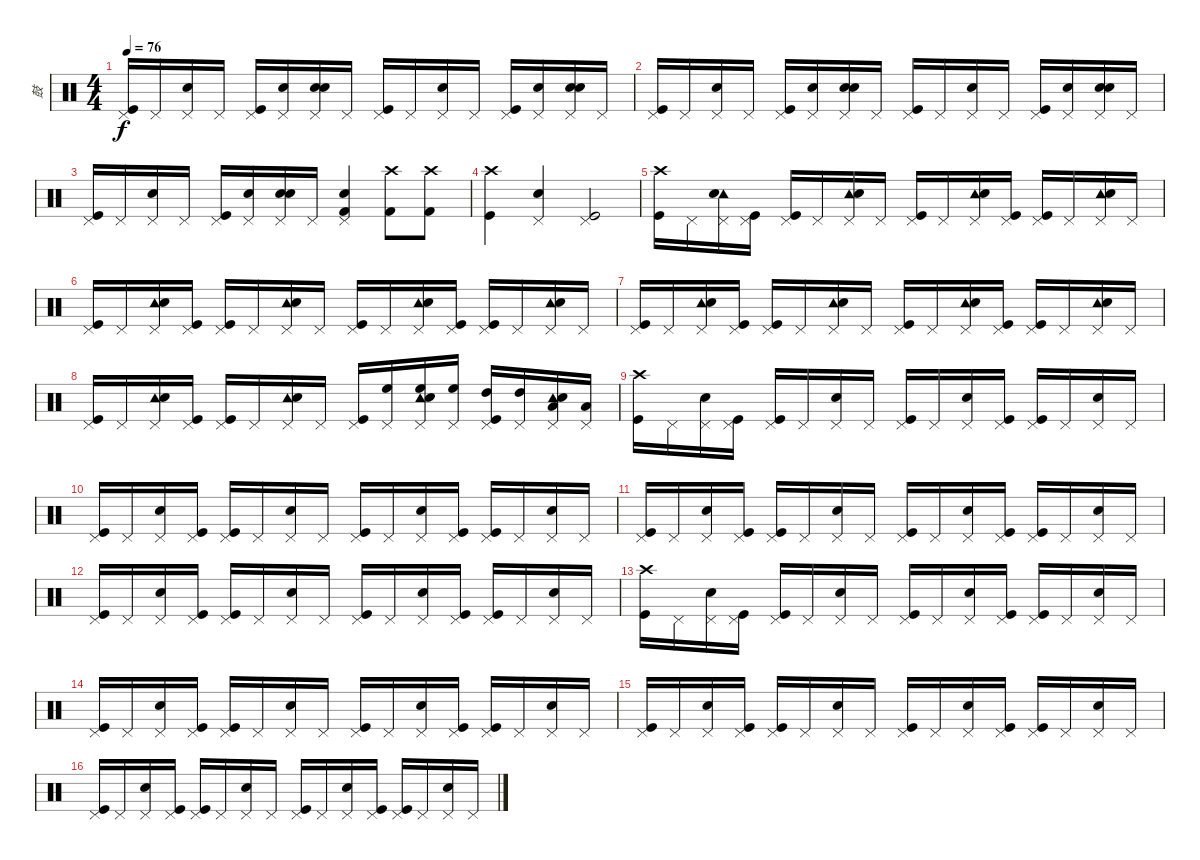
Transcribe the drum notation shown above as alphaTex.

\track ("鼓" "鼓") {instrument percussion}
\staff {score}
\articulation defaults
\ts (4 4)
\tempo 76
\clef neutral
\ks c
("Pedal Hi-Hat (hit)" "Kick (hit)").16{dy f} "Pedal Hi-Hat (hit)".16 ("Pedal Hi-Hat (hit)" "Snare (hit) 2").16 "Pedal Hi-Hat (hit)".16 ("Pedal Hi-Hat (hit)" "Kick (hit)").16 ("Pedal Hi-Hat (hit)" "Hand Clap (hit)").16 ("Pedal Hi-Hat (hit)" "Hand Clap (hit)" "Snare (hit) 2").16 "Pedal Hi-Hat (hit)".16 ("Pedal Hi-Hat (hit)" "Kick (hit)").16 "Pedal Hi-Hat (hit)".16 ("Pedal Hi-Hat (hit)" "Snare (hit) 2").16 "Pedal Hi-Hat (hit)".16 ("Pedal Hi-Hat (hit)" "Kick (hit)").16 ("Pedal Hi-Hat (hit)" "Hand Clap (hit)").16 ("Pedal Hi-Hat (hit)" "Hand Clap (hit)" "Snare (hit) 2").16 "Pedal Hi-Hat (hit)".16 |
("Pedal Hi-Hat (hit)" "Kick (hit)").16 "Pedal Hi-Hat (hit)".16 ("Pedal Hi-Hat (hit)" "Snare (hit) 2").16 "Pedal Hi-Hat (hit)".16 ("Pedal Hi-Hat (hit)" "Kick (hit)").16 ("Pedal Hi-Hat (hit)" "Hand Clap (hit)").16 ("Pedal Hi-Hat (hit)" "Hand Clap (hit)" "Snare (hit) 2").16 "Pedal Hi-Hat (hit)".16 ("Pedal Hi-Hat (hit)" "Kick (hit)").16 "Pedal Hi-Hat (hit)".16 ("Pedal Hi-Hat (hit)" "Snare (hit) 2").16 "Pedal Hi-Hat (hit)".16 ("Pedal Hi-Hat (hit)" "Kick (hit)").16 ("Pedal Hi-Hat (hit)" "Hand Clap (hit)").16 ("Pedal Hi-Hat (hit)" "Hand Clap (hit)" "Snare (hit) 2").16 "Pedal Hi-Hat (hit)".16 |
("Pedal Hi-Hat (hit)" "Kick (hit)").16 "Pedal Hi-Hat (hit)".16 ("Pedal Hi-Hat (hit)" "Snare (hit) 2").16 "Pedal Hi-Hat (hit)".16 ("Pedal Hi-Hat (hit)" "Kick (hit)").16 ("Pedal Hi-Hat (hit)" "Hand Clap (hit)").16 ("Pedal Hi-Hat (hit)" "Hand Clap (hit)" "Snare (hit) 2").16 "Pedal Hi-Hat (hit)".16 ("Pedal Hi-Hat (hit)" "Kick (hit) 2" "Snare (hit) 2").4 ("Crash high (hit)" "Kick (hit) 2").8 ("Crash high (hit)" "Kick (hit) 2").8 |
("Crash high (hit)" "Kick (hit)").4 ("Pedal Hi-Hat (hit)" "Snare (hit) 2").4 ("Pedal Hi-Hat (hit)" "Kick (hit)").2 |
("Crash high (hit)" "Kick (hit)").16 "Pedal Hi-Hat (hit)".16 ("Pedal Hi-Hat (hit)" "Tambourine (hit)" "Snare (hit) 2").16 ("Pedal Hi-Hat (hit)" "Kick (hit)").16 ("Pedal Hi-Hat (hit)" "Kick (hit)").16 "Pedal Hi-Hat (hit)".16 ("Pedal Hi-Hat (hit)" "Tambourine (hit)" "Snare (hit) 2").16 "Pedal Hi-Hat (hit)".16 ("Pedal Hi-Hat (hit)" "Kick (hit)").16 "Pedal Hi-Hat (hit)".16 ("Pedal Hi-Hat (hit)" "Tambourine (hit)" "Snare (hit) 2").16 ("Pedal Hi-Hat (hit)" "Kick (hit)").16 ("Pedal Hi-Hat (hit)" "Kick (hit)").16 "Pedal Hi-Hat (hit)".16 ("Pedal Hi-Hat (hit)" "Tambourine (hit)" "Snare (hit) 2").16 "Pedal Hi-Hat (hit)".16 |
("Pedal Hi-Hat (hit)" "Kick (hit)").16 "Pedal Hi-Hat (hit)".16 ("Pedal Hi-Hat (hit)" "Tambourine (hit)" "Snare (hit) 2").16 ("Pedal Hi-Hat (hit)" "Kick (hit)").16 ("Pedal Hi-Hat (hit)" "Kick (hit)").16 "Pedal Hi-Hat (hit)".16 ("Pedal Hi-Hat (hit)" "Tambourine (hit)" "Snare (hit) 2").16 "Pedal Hi-Hat (hit)".16 ("Pedal Hi-Hat (hit)" "Kick (hit)").16 "Pedal Hi-Hat (hit)".16 ("Pedal Hi-Hat (hit)" "Tambourine (hit)" "Snare (hit) 2").16 ("Pedal Hi-Hat (hit)" "Kick (hit)").16 ("Pedal Hi-Hat (hit)" "Kick (hit)").16 "Pedal Hi-Hat (hit)".16 ("Pedal Hi-Hat (hit)" "Tambourine (hit)" "Snare (hit) 2").16 "Pedal Hi-Hat (hit)".16 |
("Pedal Hi-Hat (hit)" "Kick (hit)").16 "Pedal Hi-Hat (hit)".16 ("Pedal Hi-Hat (hit)" "Tambourine (hit)" "Snare (hit) 2").16 ("Pedal Hi-Hat (hit)" "Kick (hit)").16 ("Pedal Hi-Hat (hit)" "Kick (hit)").16 "Pedal Hi-Hat (hit)".16 ("Pedal Hi-Hat (hit)" "Tambourine (hit)" "Snare (hit) 2").16 "Pedal Hi-Hat (hit)".16 ("Pedal Hi-Hat (hit)" "Kick (hit)").16 "Pedal Hi-Hat (hit)".16 ("Pedal Hi-Hat (hit)" "Tambourine (hit)" "Snare (hit) 2").16 ("Pedal Hi-Hat (hit)" "Kick (hit)").16 ("Pedal Hi-Hat (hit)" "Kick (hit)").16 "Pedal Hi-Hat (hit)".16 ("Pedal Hi-Hat (hit)" "Tambourine (hit)" "Snare (hit) 2").16 "Pedal Hi-Hat (hit)".16 |
("Pedal Hi-Hat (hit)" "Kick (hit)").16 "Pedal Hi-Hat (hit)".16 ("Pedal Hi-Hat (hit)" "Tambourine (hit)" "Snare (hit) 2").16 ("Pedal Hi-Hat (hit)" "Kick (hit)").16 ("Pedal Hi-Hat (hit)" "Kick (hit)").16 "Pedal Hi-Hat (hit)".16 ("Pedal Hi-Hat (hit)" "Tambourine (hit)" "Snare (hit) 2").16 "Pedal Hi-Hat (hit)".16 ("Pedal Hi-Hat (hit)" "Kick (hit)").16 ("Pedal Hi-Hat (hit)" "High Floor Tom (hit)").16 ("Pedal Hi-Hat (hit)" "Tambourine (hit)" "Snare (hit) 2" "High Floor Tom (hit)").16 ("Pedal Hi-Hat (hit)" "High Floor Tom (hit)").16 ("Pedal Hi-Hat (hit)" "Kick (hit)" "High Tom (hit)").16 ("Pedal Hi-Hat (hit)" "High Tom (hit)").16 ("Pedal Hi-Hat (hit)" "Tambourine (hit)" "Snare (hit) 2" "Low Tom (hit)").16 ("Pedal Hi-Hat (hit)" "Low Tom (hit)").16 |
("Crash high (hit)" "Kick (hit)").16 "Pedal Hi-Hat (hit)".16 ("Pedal Hi-Hat (hit)" "Snare (hit) 2").16 ("Pedal Hi-Hat (hit)" "Kick (hit)").16 ("Pedal Hi-Hat (hit)" "Kick (hit)").16 "Pedal Hi-Hat (hit)".16 ("Pedal Hi-Hat (hit)" "Snare (hit) 2").16 "Pedal Hi-Hat (hit)".16 ("Pedal Hi-Hat (hit)" "Kick (hit)").16 "Pedal Hi-Hat (hit)".16 ("Pedal Hi-Hat (hit)" "Snare (hit) 2").16 ("Pedal Hi-Hat (hit)" "Kick (hit)").16 ("Pedal Hi-Hat (hit)" "Kick (hit)").16 "Pedal Hi-Hat (hit)".16 ("Pedal Hi-Hat (hit)" "Snare (hit) 2").16 "Pedal Hi-Hat (hit)".16 |
("Pedal Hi-Hat (hit)" "Kick (hit)").16 "Pedal Hi-Hat (hit)".16 ("Pedal Hi-Hat (hit)" "Snare (hit) 2").16 ("Pedal Hi-Hat (hit)" "Kick (hit)").16 ("Pedal Hi-Hat (hit)" "Kick (hit)").16 "Pedal Hi-Hat (hit)".16 ("Pedal Hi-Hat (hit)" "Snare (hit) 2").16 "Pedal Hi-Hat (hit)".16 ("Pedal Hi-Hat (hit)" "Kick (hit)").16 "Pedal Hi-Hat (hit)".16 ("Pedal Hi-Hat (hit)" "Snare (hit) 2").16 ("Pedal Hi-Hat (hit)" "Kick (hit)").16 ("Pedal Hi-Hat (hit)" "Kick (hit)").16 "Pedal Hi-Hat (hit)".16 ("Pedal Hi-Hat (hit)" "Snare (hit) 2").16 "Pedal Hi-Hat (hit)".16 |
("Pedal Hi-Hat (hit)" "Kick (hit)").16 "Pedal Hi-Hat (hit)".16 ("Pedal Hi-Hat (hit)" "Snare (hit) 2").16 ("Pedal Hi-Hat (hit)" "Kick (hit)").16 ("Pedal Hi-Hat (hit)" "Kick (hit)").16 "Pedal Hi-Hat (hit)".16 ("Pedal Hi-Hat (hit)" "Snare (hit) 2").16 "Pedal Hi-Hat (hit)".16 ("Pedal Hi-Hat (hit)" "Kick (hit)").16 "Pedal Hi-Hat (hit)".16 ("Pedal Hi-Hat (hit)" "Snare (hit) 2").16 ("Pedal Hi-Hat (hit)" "Kick (hit)").16 ("Pedal Hi-Hat (hit)" "Kick (hit)").16 "Pedal Hi-Hat (hit)".16 ("Pedal Hi-Hat (hit)" "Snare (hit) 2").16 "Pedal Hi-Hat (hit)".16 |
("Pedal Hi-Hat (hit)" "Kick (hit)").16 "Pedal Hi-Hat (hit)".16 ("Pedal Hi-Hat (hit)" "Snare (hit) 2").16 ("Pedal Hi-Hat (hit)" "Kick (hit)").16 ("Pedal Hi-Hat (hit)" "Kick (hit)").16 "Pedal Hi-Hat (hit)".16 ("Pedal Hi-Hat (hit)" "Snare (hit) 2").16 "Pedal Hi-Hat (hit)".16 ("Pedal Hi-Hat (hit)" "Kick (hit)").16 "Pedal Hi-Hat (hit)".16 ("Pedal Hi-Hat (hit)" "Snare (hit) 2").16 ("Pedal Hi-Hat (hit)" "Kick (hit)").16 ("Pedal Hi-Hat (hit)" "Kick (hit)").16 "Pedal Hi-Hat (hit)".16 ("Pedal Hi-Hat (hit)" "Snare (hit) 2").16 "Pedal Hi-Hat (hit)".16 |
("Crash high (hit)" "Kick (hit)").16 "Pedal Hi-Hat (hit)".16 ("Pedal Hi-Hat (hit)" "Snare (hit) 2").16 ("Pedal Hi-Hat (hit)" "Kick (hit)").16 ("Pedal Hi-Hat (hit)" "Kick (hit)").16 "Pedal Hi-Hat (hit)".16 ("Pedal Hi-Hat (hit)" "Snare (hit) 2").16 "Pedal Hi-Hat (hit)".16 ("Pedal Hi-Hat (hit)" "Kick (hit)").16 "Pedal Hi-Hat (hit)".16 ("Pedal Hi-Hat (hit)" "Snare (hit) 2").16 ("Pedal Hi-Hat (hit)" "Kick (hit)").16 ("Pedal Hi-Hat (hit)" "Kick (hit)").16 "Pedal Hi-Hat (hit)".16 ("Pedal Hi-Hat (hit)" "Snare (hit) 2").16 "Pedal Hi-Hat (hit)".16 |
("Pedal Hi-Hat (hit)" "Kick (hit)").16 "Pedal Hi-Hat (hit)".16 ("Pedal Hi-Hat (hit)" "Snare (hit) 2").16 ("Pedal Hi-Hat (hit)" "Kick (hit)").16 ("Pedal Hi-Hat (hit)" "Kick (hit)").16 "Pedal Hi-Hat (hit)".16 ("Pedal Hi-Hat (hit)" "Snare (hit) 2").16 "Pedal Hi-Hat (hit)".16 ("Pedal Hi-Hat (hit)" "Kick (hit)").16 "Pedal Hi-Hat (hit)".16 ("Pedal Hi-Hat (hit)" "Snare (hit) 2").16 ("Pedal Hi-Hat (hit)" "Kick (hit)").16 ("Pedal Hi-Hat (hit)" "Kick (hit)").16 "Pedal Hi-Hat (hit)".16 ("Pedal Hi-Hat (hit)" "Snare (hit) 2").16 "Pedal Hi-Hat (hit)".16 |
("Pedal Hi-Hat (hit)" "Kick (hit)").16 "Pedal Hi-Hat (hit)".16 ("Pedal Hi-Hat (hit)" "Snare (hit) 2").16 ("Pedal Hi-Hat (hit)" "Kick (hit)").16 ("Pedal Hi-Hat (hit)" "Kick (hit)").16 "Pedal Hi-Hat (hit)".16 ("Pedal Hi-Hat (hit)" "Snare (hit) 2").16 "Pedal Hi-Hat (hit)".16 ("Pedal Hi-Hat (hit)" "Kick (hit)").16 "Pedal Hi-Hat (hit)".16 ("Pedal Hi-Hat (hit)" "Snare (hit) 2").16 ("Pedal Hi-Hat (hit)" "Kick (hit)").16 ("Pedal Hi-Hat (hit)" "Kick (hit)").16 "Pedal Hi-Hat (hit)".16 ("Pedal Hi-Hat (hit)" "Snare (hit) 2").16 "Pedal Hi-Hat (hit)".16 |
("Pedal Hi-Hat (hit)" "Kick (hit)").16 "Pedal Hi-Hat (hit)".16 ("Pedal Hi-Hat (hit)" "Snare (hit) 2").16 ("Pedal Hi-Hat (hit)" "Kick (hit)").16 ("Pedal Hi-Hat (hit)" "Kick (hit)").16 "Pedal Hi-Hat (hit)".16 ("Pedal Hi-Hat (hit)" "Snare (hit) 2").16 "Pedal Hi-Hat (hit)".16 ("Pedal Hi-Hat (hit)" "Kick (hit)").16 "Pedal Hi-Hat (hit)".16 ("Pedal Hi-Hat (hit)" "Snare (hit) 2").16 ("Pedal Hi-Hat (hit)" "Kick (hit)").16 ("Pedal Hi-Hat (hit)" "Kick (hit)").16 "Pedal Hi-Hat (hit)".16 ("Pedal Hi-Hat (hit)" "Snare (hit) 2").16 "Pedal Hi-Hat (hit)".16
